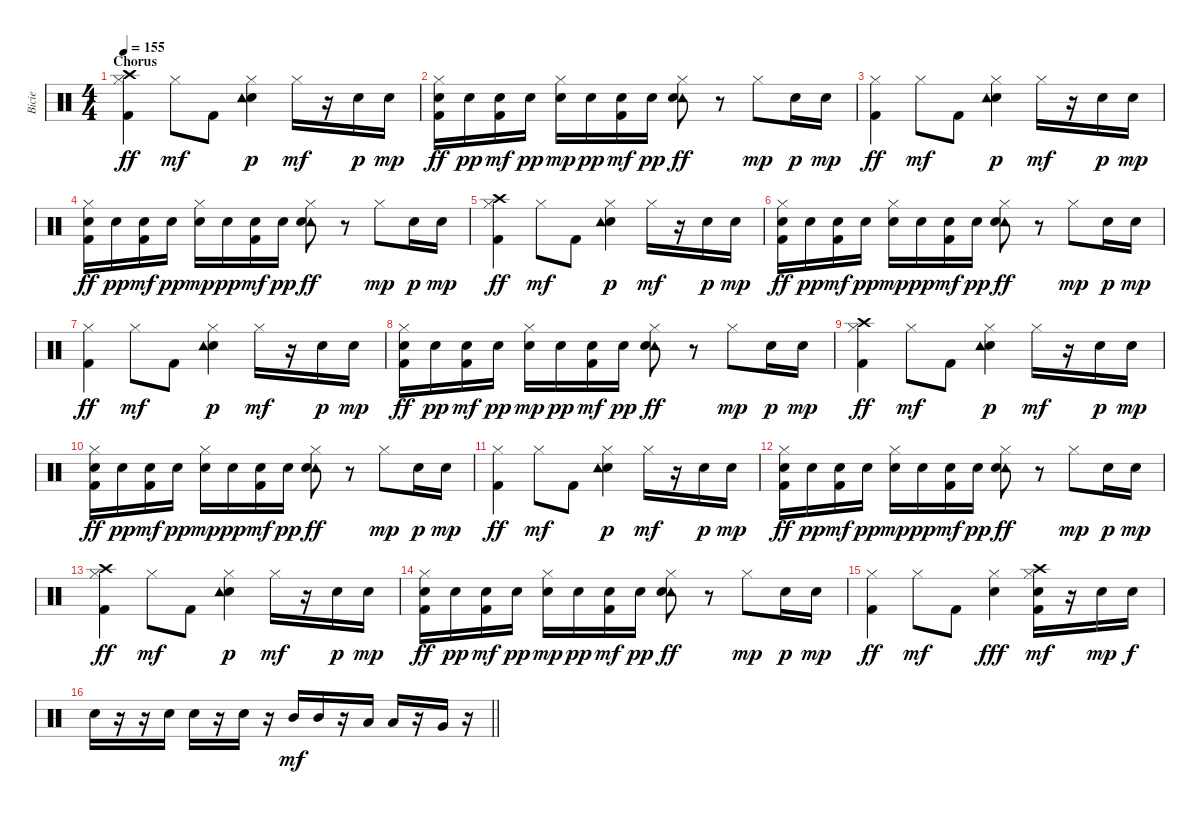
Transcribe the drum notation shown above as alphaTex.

\track ("Bicie" "Bicie") {instrument percussion}
\staff {score}
\articulation defaults
\ts (4 4)
\section ("" "Chorus")
\tempo 155
\clef neutral
\ks c
("Hi-Hat (closed)" "Crash high (hit)" "Kick (hit) 2").4{dy ff} "Hi-Hat (closed)".8{dy mf} "Kick (hit) 2".8 ("Hi-Hat (closed)" "Electric Snare (hit)" "Tambourine (hit)").4{dy p} "Hi-Hat (closed)".16{dy mf} r.16 "Electric Snare (hit)".16{dy p} "Electric Snare (hit)".16{dy mp} |
("Hi-Hat (closed)" "Electric Snare (hit)" "Kick (hit) 2").16{dy ff} "Electric Snare (hit)".16{dy pp} ("Electric Snare (hit)" "Kick (hit) 2").16{dy mf} "Electric Snare (hit)".16{dy pp} ("Hi-Hat (closed)" "Electric Snare (hit)").16{dy mp} "Electric Snare (hit)".16{dy pp} ("Electric Snare (hit)" "Kick (hit) 2").16{dy mf} "Electric Snare (hit)".16{dy pp} ("Hi-Hat (closed)" "Tambourine (hit)" "Electric Snare (hit)").8{dy ff} r.8 "Hi-Hat (closed)".8{dy mp} "Electric Snare (hit)".16{dy p} "Electric Snare (hit)".16{dy mp} |
("Hi-Hat (closed)" "Kick (hit) 2").4{dy ff} "Hi-Hat (closed)".8{dy mf} "Kick (hit) 2".8 ("Hi-Hat (closed)" "Electric Snare (hit)" "Tambourine (hit)").4{dy p} "Hi-Hat (closed)".16{dy mf} r.16 "Electric Snare (hit)".16{dy p} "Electric Snare (hit)".16{dy mp} |
("Hi-Hat (closed)" "Electric Snare (hit)" "Kick (hit) 2").16{dy ff} "Electric Snare (hit)".16{dy pp} ("Electric Snare (hit)" "Kick (hit) 2").16{dy mf} "Electric Snare (hit)".16{dy pp} ("Hi-Hat (closed)" "Electric Snare (hit)").16{dy mp} "Electric Snare (hit)".16{dy pp} ("Electric Snare (hit)" "Kick (hit) 2").16{dy mf} "Electric Snare (hit)".16{dy pp} ("Hi-Hat (closed)" "Tambourine (hit)" "Electric Snare (hit)").8{dy ff} r.8 "Hi-Hat (closed)".8{dy mp} "Electric Snare (hit)".16{dy p} "Electric Snare (hit)".16{dy mp} |
("Hi-Hat (closed)" "Crash high (hit)" "Kick (hit) 2").4{dy ff} "Hi-Hat (closed)".8{dy mf} "Kick (hit) 2".8 ("Hi-Hat (closed)" "Electric Snare (hit)" "Tambourine (hit)").4{dy p} "Hi-Hat (closed)".16{dy mf} r.16 "Electric Snare (hit)".16{dy p} "Electric Snare (hit)".16{dy mp} |
("Hi-Hat (closed)" "Electric Snare (hit)" "Kick (hit) 2").16{dy ff} "Electric Snare (hit)".16{dy pp} ("Electric Snare (hit)" "Kick (hit) 2").16{dy mf} "Electric Snare (hit)".16{dy pp} ("Hi-Hat (closed)" "Electric Snare (hit)").16{dy mp} "Electric Snare (hit)".16{dy pp} ("Electric Snare (hit)" "Kick (hit) 2").16{dy mf} "Electric Snare (hit)".16{dy pp} ("Hi-Hat (closed)" "Tambourine (hit)" "Electric Snare (hit)").8{dy ff} r.8 "Hi-Hat (closed)".8{dy mp} "Electric Snare (hit)".16{dy p} "Electric Snare (hit)".16{dy mp} |
("Hi-Hat (closed)" "Kick (hit) 2").4{dy ff} "Hi-Hat (closed)".8{dy mf} "Kick (hit) 2".8 ("Hi-Hat (closed)" "Electric Snare (hit)" "Tambourine (hit)").4{dy p} "Hi-Hat (closed)".16{dy mf} r.16 "Electric Snare (hit)".16{dy p} "Electric Snare (hit)".16{dy mp} |
("Hi-Hat (closed)" "Electric Snare (hit)" "Kick (hit) 2").16{dy ff} "Electric Snare (hit)".16{dy pp} ("Electric Snare (hit)" "Kick (hit) 2").16{dy mf} "Electric Snare (hit)".16{dy pp} ("Hi-Hat (closed)" "Electric Snare (hit)").16{dy mp} "Electric Snare (hit)".16{dy pp} ("Electric Snare (hit)" "Kick (hit) 2").16{dy mf} "Electric Snare (hit)".16{dy pp} ("Hi-Hat (closed)" "Tambourine (hit)" "Electric Snare (hit)").8{dy ff} r.8 "Hi-Hat (closed)".8{dy mp} "Electric Snare (hit)".16{dy p} "Electric Snare (hit)".16{dy mp} |
("Hi-Hat (closed)" "Crash high (hit)" "Kick (hit) 2").4{dy ff} "Hi-Hat (closed)".8{dy mf} "Kick (hit) 2".8 ("Hi-Hat (closed)" "Electric Snare (hit)" "Tambourine (hit)").4{dy p} "Hi-Hat (closed)".16{dy mf} r.16 "Electric Snare (hit)".16{dy p} "Electric Snare (hit)".16{dy mp} |
("Hi-Hat (closed)" "Electric Snare (hit)" "Kick (hit) 2").16{dy ff} "Electric Snare (hit)".16{dy pp} ("Electric Snare (hit)" "Kick (hit) 2").16{dy mf} "Electric Snare (hit)".16{dy pp} ("Hi-Hat (closed)" "Electric Snare (hit)").16{dy mp} "Electric Snare (hit)".16{dy pp} ("Electric Snare (hit)" "Kick (hit) 2").16{dy mf} "Electric Snare (hit)".16{dy pp} ("Hi-Hat (closed)" "Tambourine (hit)" "Electric Snare (hit)").8{dy ff} r.8 "Hi-Hat (closed)".8{dy mp} "Electric Snare (hit)".16{dy p} "Electric Snare (hit)".16{dy mp} |
("Hi-Hat (closed)" "Kick (hit) 2").4{dy ff} "Hi-Hat (closed)".8{dy mf} "Kick (hit) 2".8 ("Hi-Hat (closed)" "Electric Snare (hit)" "Tambourine (hit)").4{dy p} "Hi-Hat (closed)".16{dy mf} r.16 "Electric Snare (hit)".16{dy p} "Electric Snare (hit)".16{dy mp} |
("Hi-Hat (closed)" "Electric Snare (hit)" "Kick (hit) 2").16{dy ff} "Electric Snare (hit)".16{dy pp} ("Electric Snare (hit)" "Kick (hit) 2").16{dy mf} "Electric Snare (hit)".16{dy pp} ("Hi-Hat (closed)" "Electric Snare (hit)").16{dy mp} "Electric Snare (hit)".16{dy pp} ("Electric Snare (hit)" "Kick (hit) 2").16{dy mf} "Electric Snare (hit)".16{dy pp} ("Hi-Hat (closed)" "Tambourine (hit)" "Electric Snare (hit)").8{dy ff} r.8 "Hi-Hat (closed)".8{dy mp} "Electric Snare (hit)".16{dy p} "Electric Snare (hit)".16{dy mp} |
("Hi-Hat (closed)" "Crash high (hit)" "Kick (hit) 2").4{dy ff} "Hi-Hat (closed)".8{dy mf} "Kick (hit) 2".8 ("Hi-Hat (closed)" "Electric Snare (hit)" "Tambourine (hit)").4{dy p} "Hi-Hat (closed)".16{dy mf} r.16 "Electric Snare (hit)".16{dy p} "Electric Snare (hit)".16{dy mp} |
("Hi-Hat (closed)" "Electric Snare (hit)" "Kick (hit) 2").16{dy ff} "Electric Snare (hit)".16{dy pp} ("Electric Snare (hit)" "Kick (hit) 2").16{dy mf} "Electric Snare (hit)".16{dy pp} ("Hi-Hat (closed)" "Electric Snare (hit)").16{dy mp} "Electric Snare (hit)".16{dy pp} ("Electric Snare (hit)" "Kick (hit) 2").16{dy mf} "Electric Snare (hit)".16{dy pp} ("Hi-Hat (closed)" "Tambourine (hit)" "Electric Snare (hit)").8{dy ff} r.8 "Hi-Hat (closed)".8{dy mp} "Electric Snare (hit)".16{dy p} "Electric Snare (hit)".16{dy mp} |
("Hi-Hat (closed)" "Kick (hit) 2").4{dy ff} "Hi-Hat (closed)".8{dy mf} "Kick (hit) 2".8 ("Hi-Hat (closed)" "Electric Snare (hit)").4{dy fff} ("Hi-Hat (closed)" "Electric Snare (hit)" "Kick (hit) 2" "Crash high (hit)").16{dy mf} r.16 "Electric Snare (hit)".16{dy mp} "Electric Snare (hit)".16{dy f} |
\barLineRight lightlight "Electric Snare (hit)".16
r.16 r.16 "Electric Snare (hit)".16 "Electric Snare (hit)".16 r.16 "Electric Snare (hit)".16 r.16 "Mid Tom (hit)".16{dy mf} "Mid Tom (hit)".16 r.16 "Low Tom (hit)".16 "Low Tom (hit)".16 r.16 "Very Low Tom (hit)".16 r.16
